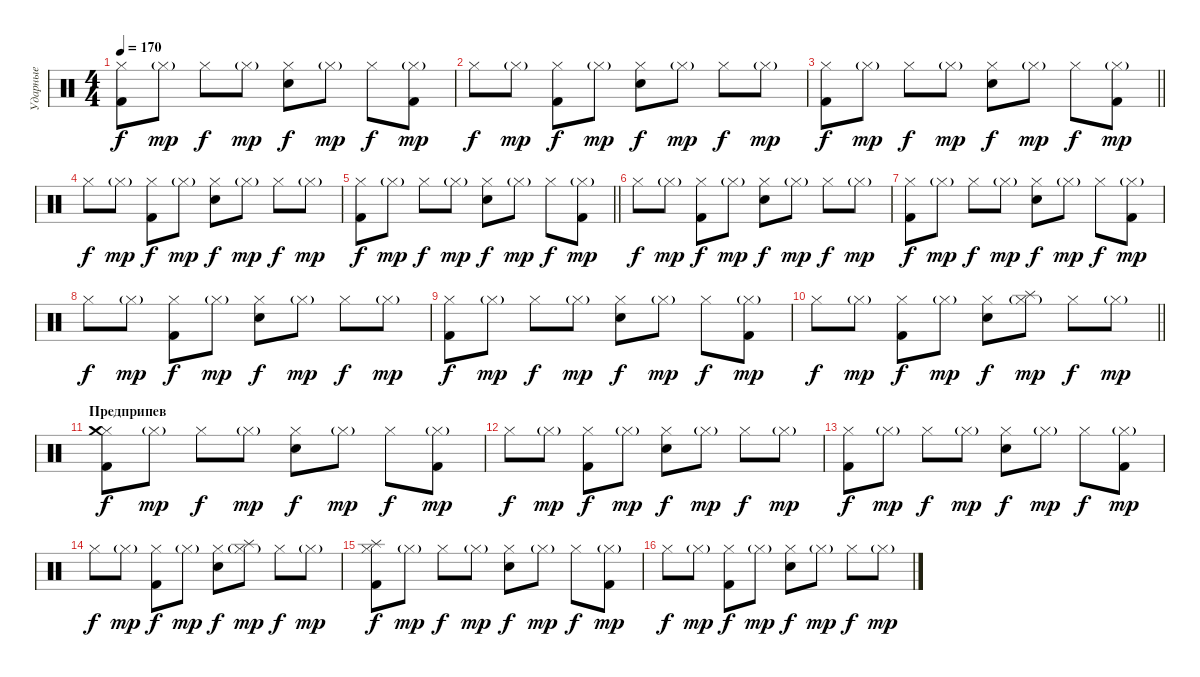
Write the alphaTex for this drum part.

\track ("Ударные" "Ударные") {instrument percussion}
\staff {score}
\articulation defaults
\ts (4 4)
\tempo 170
\clef neutral
\ks c
("Kick (hit) 2" "Hi-Hat (closed)").8{dy f} "Hi-Hat (closed)"{g}.8{dy mp} "Hi-Hat (closed)".8{dy f} "Hi-Hat (closed)"{g}.8{dy mp} ("Electric Snare (hit)" "Hi-Hat (closed)").8{dy f} "Hi-Hat (closed)"{g}.8{dy mp} "Hi-Hat (closed)".8{dy f} ("Kick (hit) 2" "Hi-Hat (closed)"{g}).8{dy mp} |
"Hi-Hat (closed)".8{dy f} "Hi-Hat (closed)"{g}.8{dy mp} ("Kick (hit) 2" "Hi-Hat (closed)").8{dy f} "Hi-Hat (closed)"{g}.8{dy mp} ("Electric Snare (hit)" "Hi-Hat (closed)").8{dy f} "Hi-Hat (closed)"{g}.8{dy mp} "Hi-Hat (closed)".8{dy f} "Hi-Hat (closed)"{g}.8{dy mp} |
\barLineRight lightlight
("Kick (hit) 2" "Hi-Hat (closed)").8{dy f} "Hi-Hat (closed)"{g}.8{dy mp} "Hi-Hat (closed)".8{dy f} "Hi-Hat (closed)"{g}.8{dy mp} ("Electric Snare (hit)" "Hi-Hat (closed)").8{dy f} "Hi-Hat (closed)"{g}.8{dy mp} "Hi-Hat (closed)".8{dy f} ("Kick (hit) 2" "Hi-Hat (closed)"{g}).8{dy mp} |
"Hi-Hat (closed)".8{dy f} "Hi-Hat (closed)"{g}.8{dy mp} ("Kick (hit) 2" "Hi-Hat (closed)").8{dy f} "Hi-Hat (closed)"{g}.8{dy mp} ("Electric Snare (hit)" "Hi-Hat (closed)").8{dy f} "Hi-Hat (closed)"{g}.8{dy mp} "Hi-Hat (closed)".8{dy f} "Hi-Hat (closed)"{g}.8{dy mp} |
\barLineRight lightlight
("Kick (hit) 2" "Hi-Hat (closed)").8{dy f} "Hi-Hat (closed)"{g}.8{dy mp} "Hi-Hat (closed)".8{dy f} "Hi-Hat (closed)"{g}.8{dy mp} ("Electric Snare (hit)" "Hi-Hat (closed)").8{dy f} "Hi-Hat (closed)"{g}.8{dy mp} "Hi-Hat (closed)".8{dy f} ("Kick (hit) 2" "Hi-Hat (closed)"{g}).8{dy mp} |
"Hi-Hat (closed)".8{dy f} "Hi-Hat (closed)"{g}.8{dy mp} ("Kick (hit) 2" "Hi-Hat (closed)").8{dy f} "Hi-Hat (closed)"{g}.8{dy mp} ("Electric Snare (hit)" "Hi-Hat (closed)").8{dy f} "Hi-Hat (closed)"{g}.8{dy mp} "Hi-Hat (closed)".8{dy f} "Hi-Hat (closed)"{g}.8{dy mp} |
("Kick (hit) 2" "Hi-Hat (closed)").8{dy f} "Hi-Hat (closed)"{g}.8{dy mp} "Hi-Hat (closed)".8{dy f} "Hi-Hat (closed)"{g}.8{dy mp} ("Electric Snare (hit)" "Hi-Hat (closed)").8{dy f} "Hi-Hat (closed)"{g}.8{dy mp} "Hi-Hat (closed)".8{dy f} ("Kick (hit) 2" "Hi-Hat (closed)"{g}).8{dy mp} |
"Hi-Hat (closed)".8{dy f} "Hi-Hat (closed)"{g}.8{dy mp} ("Kick (hit) 2" "Hi-Hat (closed)").8{dy f} "Hi-Hat (closed)"{g}.8{dy mp} ("Electric Snare (hit)" "Hi-Hat (closed)").8{dy f} "Hi-Hat (closed)"{g}.8{dy mp} "Hi-Hat (closed)".8{dy f} "Hi-Hat (closed)"{g}.8{dy mp} |
("Kick (hit) 2" "Hi-Hat (closed)").8{dy f} "Hi-Hat (closed)"{g}.8{dy mp} "Hi-Hat (closed)".8{dy f} "Hi-Hat (closed)"{g}.8{dy mp} ("Electric Snare (hit)" "Hi-Hat (closed)").8{dy f} "Hi-Hat (closed)"{g}.8{dy mp} "Hi-Hat (closed)".8{dy f} ("Kick (hit) 2" "Hi-Hat (closed)"{g}).8{dy mp} |
\barLineRight lightlight "Hi-Hat (closed)".8{dy f} "Hi-Hat (closed)"{g}.8{dy mp}
("Kick (hit) 2" "Hi-Hat (closed)").8{dy f} "Hi-Hat (closed)"{g}.8{dy mp} ("Electric Snare (hit)" "Hi-Hat (closed)").8{dy f} ("Splash (hit)" "Hi-Hat (closed)"{g}).8{dy mp} "Hi-Hat (closed)".8{dy f} "Hi-Hat (closed)"{g}.8{dy mp} |
\section ("" "Предприпев")
("Kick (hit) 2" "Hi-Hat (closed)" "Crash medium (hit)").8{dy f} "Hi-Hat (closed)"{g}.8{dy mp} "Hi-Hat (closed)".8{dy f} "Hi-Hat (closed)"{g}.8{dy mp} ("Electric Snare (hit)" "Hi-Hat (closed)").8{dy f} "Hi-Hat (closed)"{g}.8{dy mp} "Hi-Hat (closed)".8{dy f} ("Kick (hit) 2" "Hi-Hat (closed)"{g}).8{dy mp} |
"Hi-Hat (closed)".8{dy f} "Hi-Hat (closed)"{g}.8{dy mp} ("Kick (hit) 2" "Hi-Hat (closed)").8{dy f} "Hi-Hat (closed)"{g}.8{dy mp} ("Electric Snare (hit)" "Hi-Hat (closed)").8{dy f} "Hi-Hat (closed)"{g}.8{dy mp} "Hi-Hat (closed)".8{dy f} "Hi-Hat (closed)"{g}.8{dy mp} |
("Kick (hit) 2" "Hi-Hat (closed)").8{dy f} "Hi-Hat (closed)"{g}.8{dy mp} "Hi-Hat (closed)".8{dy f} "Hi-Hat (closed)"{g}.8{dy mp} ("Electric Snare (hit)" "Hi-Hat (closed)").8{dy f} "Hi-Hat (closed)"{g}.8{dy mp} "Hi-Hat (closed)".8{dy f} ("Kick (hit) 2" "Hi-Hat (closed)"{g}).8{dy mp} |
"Hi-Hat (closed)".8{dy f} "Hi-Hat (closed)"{g}.8{dy mp} ("Kick (hit) 2" "Hi-Hat (closed)").8{dy f} "Hi-Hat (closed)"{g}.8{dy mp} ("Electric Snare (hit)" "Hi-Hat (closed)").8{dy f} ("Splash (hit)" "Hi-Hat (closed)"{g}).8{dy mp} "Hi-Hat (closed)".8{dy f} "Hi-Hat (closed)"{g}.8{dy mp} |
("Kick (hit) 2" "Hi-Hat (closed)" "Splash (hit)").8{dy f} "Hi-Hat (closed)"{g}.8{dy mp} "Hi-Hat (closed)".8{dy f} "Hi-Hat (closed)"{g}.8{dy mp} ("Electric Snare (hit)" "Hi-Hat (closed)").8{dy f} "Hi-Hat (closed)"{g}.8{dy mp} "Hi-Hat (closed)".8{dy f} ("Kick (hit) 2" "Hi-Hat (closed)"{g}).8{dy mp} |
"Hi-Hat (closed)".8{dy f} "Hi-Hat (closed)"{g}.8{dy mp} ("Kick (hit) 2" "Hi-Hat (closed)").8{dy f} "Hi-Hat (closed)"{g}.8{dy mp} ("Electric Snare (hit)" "Hi-Hat (closed)").8{dy f} "Hi-Hat (closed)"{g}.8{dy mp} "Hi-Hat (closed)".8{dy f} "Hi-Hat (closed)"{g}.8{dy mp}
